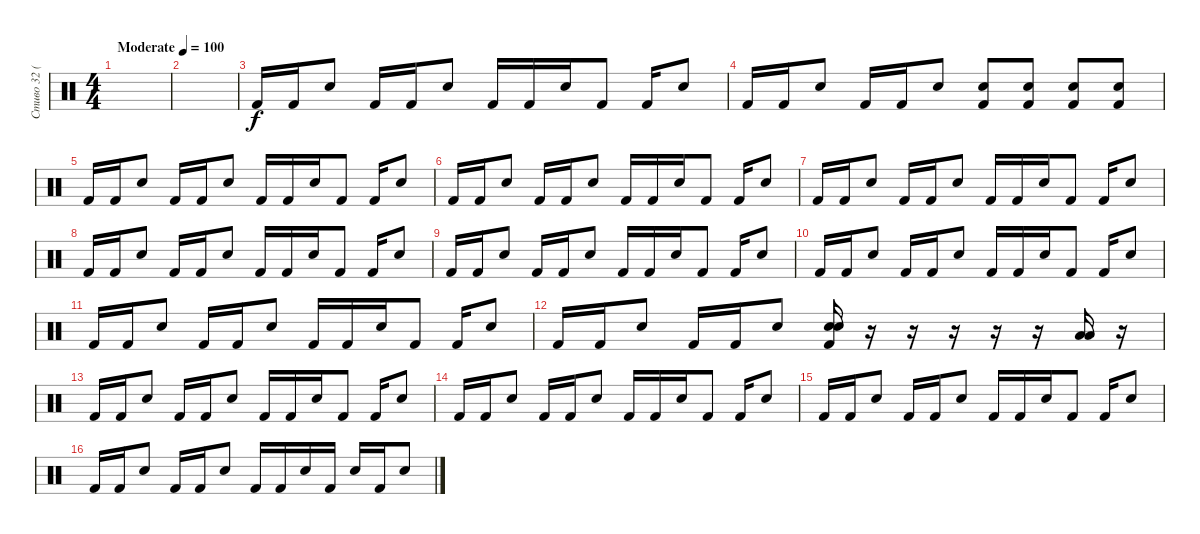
\track ("Стиво 32 (Ударные)" "Стиво 32 (") {instrument percussion}
\staff {score}
\articulation defaults
\ts (4 4)
\tempo (100 "Moderate")
\clef neutral
\ks c
|
|
"Kick (hit) 2".16 "Kick (hit) 2".16 "Electric Snare (hit)".8 "Kick (hit) 2".16 "Kick (hit) 2".16 "Electric Snare (hit)".8 "Kick (hit) 2".16 "Kick (hit) 2".16 "Electric Snare (hit)".16 "Kick (hit) 2".8 "Kick (hit) 2".16 "Electric Snare (hit)".8 |
"Kick (hit) 2".16 "Kick (hit) 2".16 "Electric Snare (hit)".8 "Kick (hit) 2".16 "Kick (hit) 2".16 "Electric Snare (hit)".8 ("Electric Snare (hit)" "Kick (hit) 2").8 ("Electric Snare (hit)" "Kick (hit) 2").8 ("Electric Snare (hit)" "Kick (hit) 2").8 ("Electric Snare (hit)" "Kick (hit) 2").8 |
"Kick (hit) 2".16 "Kick (hit) 2".16 "Electric Snare (hit)".8 "Kick (hit) 2".16 "Kick (hit) 2".16 "Electric Snare (hit)".8 "Kick (hit) 2".16 "Kick (hit) 2".16 "Electric Snare (hit)".16 "Kick (hit) 2".8 "Kick (hit) 2".16 "Electric Snare (hit)".8 |
"Kick (hit) 2".16 "Kick (hit) 2".16 "Electric Snare (hit)".8 "Kick (hit) 2".16 "Kick (hit) 2".16 "Electric Snare (hit)".8 "Kick (hit) 2".16 "Kick (hit) 2".16 "Electric Snare (hit)".16 "Kick (hit) 2".8 "Kick (hit) 2".16 "Electric Snare (hit)".8 |
"Kick (hit) 2".16 "Kick (hit) 2".16 "Electric Snare (hit)".8 "Kick (hit) 2".16 "Kick (hit) 2".16 "Electric Snare (hit)".8 "Kick (hit) 2".16 "Kick (hit) 2".16 "Electric Snare (hit)".16 "Kick (hit) 2".8 "Kick (hit) 2".16 "Electric Snare (hit)".8 |
"Kick (hit) 2".16 "Kick (hit) 2".16 "Electric Snare (hit)".8 "Kick (hit) 2".16 "Kick (hit) 2".16 "Electric Snare (hit)".8 "Kick (hit) 2".16 "Kick (hit) 2".16 "Electric Snare (hit)".16 "Kick (hit) 2".8 "Kick (hit) 2".16 "Electric Snare (hit)".8 |
"Kick (hit) 2".16 "Kick (hit) 2".16 "Electric Snare (hit)".8 "Kick (hit) 2".16 "Kick (hit) 2".16 "Electric Snare (hit)".8 "Kick (hit) 2".16 "Kick (hit) 2".16 "Electric Snare (hit)".16 "Kick (hit) 2".8 "Kick (hit) 2".16 "Electric Snare (hit)".8 |
"Kick (hit) 2".16 "Kick (hit) 2".16 "Electric Snare (hit)".8 "Kick (hit) 2".16 "Kick (hit) 2".16 "Electric Snare (hit)".8 "Kick (hit) 2".16 "Kick (hit) 2".16 "Electric Snare (hit)".16 "Kick (hit) 2".8 "Kick (hit) 2".16 "Electric Snare (hit)".8 |
"Kick (hit) 2".16 "Kick (hit) 2".16 "Electric Snare (hit)".8 "Kick (hit) 2".16 "Kick (hit) 2".16 "Electric Snare (hit)".8 "Kick (hit) 2".16 "Kick (hit) 2".16 "Electric Snare (hit)".16 "Kick (hit) 2".8 "Kick (hit) 2".16 "Electric Snare (hit)".8 |
"Kick (hit) 2".16 "Kick (hit) 2".16 "Electric Snare (hit)".8 "Kick (hit) 2".16 "Kick (hit) 2".16 "Electric Snare (hit)".8 ("Snare (hit) 2" "Electric Snare (hit)" "Kick (hit) 2").16 r.16 r.16 r.16 r.16 r.16 ("Low Floor Tom (hit)" "Low Tom (hit)").16 r.16 |
"Kick (hit) 2".16 "Kick (hit) 2".16 "Electric Snare (hit)".8 "Kick (hit) 2".16 "Kick (hit) 2".16 "Electric Snare (hit)".8 "Kick (hit) 2".16 "Kick (hit) 2".16 "Electric Snare (hit)".16 "Kick (hit) 2".8 "Kick (hit) 2".16 "Electric Snare (hit)".8 |
"Kick (hit) 2".16 "Kick (hit) 2".16 "Electric Snare (hit)".8 "Kick (hit) 2".16 "Kick (hit) 2".16 "Electric Snare (hit)".8 "Kick (hit) 2".16 "Kick (hit) 2".16 "Electric Snare (hit)".16 "Kick (hit) 2".8 "Kick (hit) 2".16 "Electric Snare (hit)".8 |
"Kick (hit) 2".16 "Kick (hit) 2".16 "Electric Snare (hit)".8 "Kick (hit) 2".16 "Kick (hit) 2".16 "Electric Snare (hit)".8 "Kick (hit) 2".16 "Kick (hit) 2".16 "Electric Snare (hit)".16 "Kick (hit) 2".8 "Kick (hit) 2".16 "Electric Snare (hit)".8 |
"Kick (hit) 2".16 "Kick (hit) 2".16 "Electric Snare (hit)".8 "Kick (hit) 2".16 "Kick (hit) 2".16 "Electric Snare (hit)".8 "Kick (hit) 2".16 "Kick (hit) 2".16 "Electric Snare (hit)".16 "Kick (hit) 2".16 "Electric Snare (hit)".16 "Kick (hit) 2".16 "Electric Snare (hit)".8
